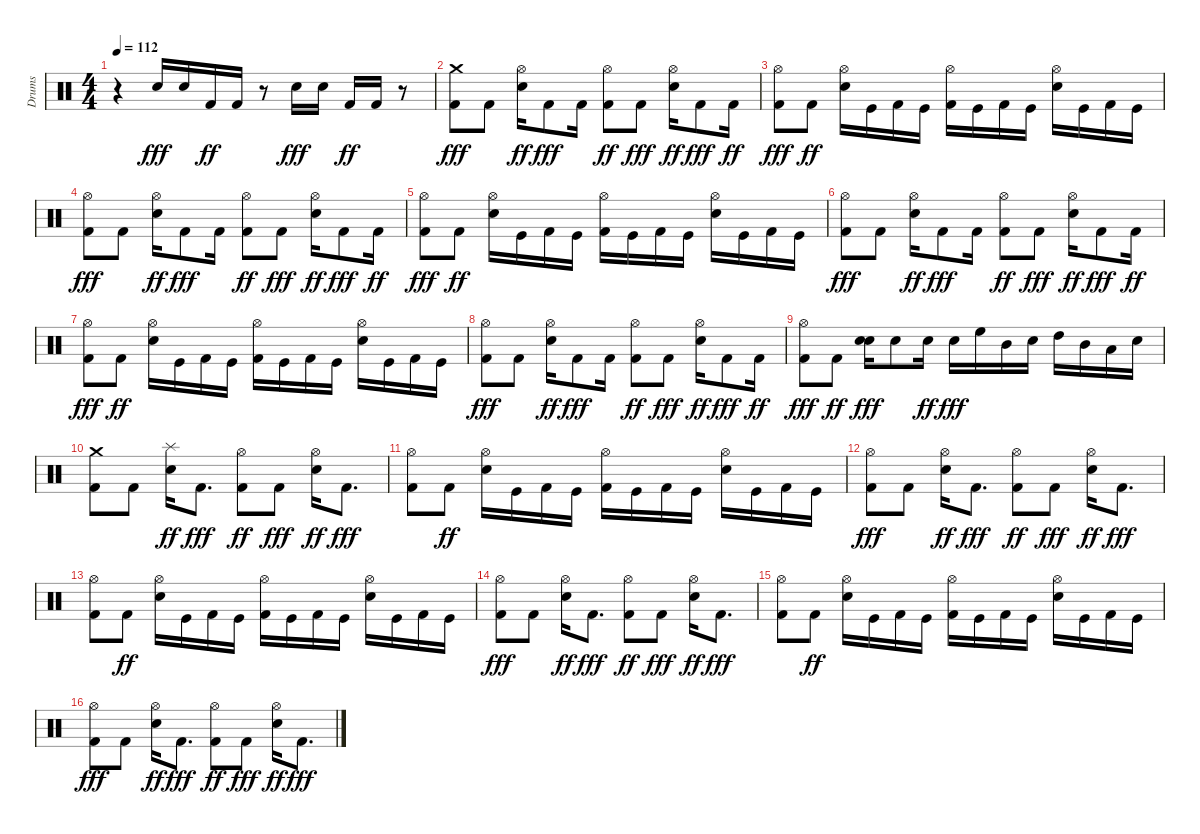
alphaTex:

\track ("Drums" "Drums") {instrument percussion}
\staff {score}
\articulation defaults
\ts (4 4)
\tempo 112
\clef neutral
\ks c
r.4{dy fff} "Electric Snare (hit)".16 "Snare (hit) 2".16 "Kick (hit) 2".16{dy ff} "Kick (hit) 2".16 r.8 "Electric Snare (hit)".16{dy fff} "Snare (hit) 2".16 "Kick (hit) 2".16{dy ff} "Kick (hit) 2".16 r.8 |
("Kick (hit) 2" "Crash medium (hit)").8{dy fff} "Kick (hit) 2".8 ("Snare (hit) 2" "Hi-Hat (open)").16{dy ff} "Kick (hit) 2".8{dy fff} "Kick (hit) 2".16 ("Kick (hit) 2" "Hi-Hat (open)").8{dy ff} "Kick (hit) 2".8{dy fff} ("Snare (hit) 2" "Hi-Hat (open)").16{dy ff} "Kick (hit) 2".8{dy fff} "Kick (hit) 2".16{dy ff} |
("Kick (hit) 2" "Hi-Hat (open)").8{dy fff} "Kick (hit) 2".8{dy ff} ("Snare (hit) 2" "Hi-Hat (open)").16 "Kick (hit)".16 "Kick (hit) 2".16 "Kick (hit)".16 ("Kick (hit) 2" "Hi-Hat (open)").16 "Kick (hit)".16 "Kick (hit) 2".16 "Kick (hit)".16 ("Snare (hit) 2" "Hi-Hat (open)").16 "Kick (hit)".16 "Kick (hit) 2".16 "Kick (hit)".16 |
("Kick (hit) 2" "Hi-Hat (open)").8{dy fff} "Kick (hit) 2".8 ("Snare (hit) 2" "Hi-Hat (open)").16{dy ff} "Kick (hit) 2".8{dy fff} "Kick (hit) 2".16 ("Kick (hit) 2" "Hi-Hat (open)").8{dy ff} "Kick (hit) 2".8{dy fff} ("Snare (hit) 2" "Hi-Hat (open)").16{dy ff} "Kick (hit) 2".8{dy fff} "Kick (hit) 2".16{dy ff} |
("Kick (hit) 2" "Hi-Hat (open)").8{dy fff} "Kick (hit) 2".8{dy ff} ("Snare (hit) 2" "Hi-Hat (open)").16 "Kick (hit)".16 "Kick (hit) 2".16 "Kick (hit)".16 ("Kick (hit) 2" "Hi-Hat (open)").16 "Kick (hit)".16 "Kick (hit) 2".16 "Kick (hit)".16 ("Snare (hit) 2" "Hi-Hat (open)").16 "Kick (hit)".16 "Kick (hit) 2".16 "Kick (hit)".16 |
("Kick (hit) 2" "Hi-Hat (open)").8{dy fff} "Kick (hit) 2".8 ("Snare (hit) 2" "Hi-Hat (open)").16{dy ff} "Kick (hit) 2".8{dy fff} "Kick (hit) 2".16 ("Kick (hit) 2" "Hi-Hat (open)").8{dy ff} "Kick (hit) 2".8{dy fff} ("Snare (hit) 2" "Hi-Hat (open)").16{dy ff} "Kick (hit) 2".8{dy fff} "Kick (hit) 2".16{dy ff} |
("Kick (hit) 2" "Hi-Hat (open)").8{dy fff} "Kick (hit) 2".8{dy ff} ("Snare (hit) 2" "Hi-Hat (open)").16 "Kick (hit)".16 "Kick (hit) 2".16 "Kick (hit)".16 ("Kick (hit) 2" "Hi-Hat (open)").16 "Kick (hit)".16 "Kick (hit) 2".16 "Kick (hit)".16 ("Snare (hit) 2" "Hi-Hat (open)").16 "Kick (hit)".16 "Kick (hit) 2".16 "Kick (hit)".16 |
("Kick (hit) 2" "Hi-Hat (open)").8{dy fff} "Kick (hit) 2".8 ("Snare (hit) 2" "Hi-Hat (open)").16{dy ff} "Kick (hit) 2".8{dy fff} "Kick (hit) 2".16 ("Kick (hit) 2" "Hi-Hat (open)").8{dy ff} "Kick (hit) 2".8{dy fff} ("Snare (hit) 2" "Hi-Hat (open)").16{dy ff} "Kick (hit) 2".8{dy fff} "Kick (hit) 2".16{dy ff} |
("Kick (hit) 2" "Hi-Hat (open)").8{dy fff} "Kick (hit) 2".8{dy ff} ("Electric Snare (hit)" "Electric Snare (hit)").16{dy fff} "Snare (hit) 2".8 "Electric Snare (hit)".16{dy ff} "Electric Snare (hit)".16{dy fff} "High Floor Tom (hit)".16 "Mid Tom (hit)".16 "Snare (hit) 2".16 "High Tom (hit)".16 "Mid Tom (hit)".16 "Low Tom (hit)".16 "Electric Snare (hit)".16 |
("Kick (hit) 2" "Crash medium (hit)").8 "Kick (hit) 2".8 ("Snare (hit) 2" "Splash (hit)").16{dy ff} "Kick (hit) 2".8{d dy fff} ("Kick (hit) 2" "Hi-Hat (open)").8{dy ff} "Kick (hit) 2".8{dy fff} ("Snare (hit) 2" "Hi-Hat (open)").16{dy ff} "Kick (hit) 2".8{d dy fff} |
("Kick (hit) 2" "Hi-Hat (open)").8 "Kick (hit) 2".8{dy ff} ("Snare (hit) 2" "Hi-Hat (open)").16 "Kick (hit)".16 "Kick (hit) 2".16 "Kick (hit)".16 ("Kick (hit) 2" "Hi-Hat (open)").16 "Kick (hit)".16 "Kick (hit) 2".16 "Kick (hit)".16 ("Snare (hit) 2" "Hi-Hat (open)").16 "Kick (hit)".16 "Kick (hit) 2".16 "Kick (hit)".16 |
("Kick (hit) 2" "Hi-Hat (open)").8{dy fff} "Kick (hit) 2".8 ("Snare (hit) 2" "Hi-Hat (open)").16{dy ff} "Kick (hit) 2".8{d dy fff} ("Kick (hit) 2" "Hi-Hat (open)").8{dy ff} "Kick (hit) 2".8{dy fff} ("Snare (hit) 2" "Hi-Hat (open)").16{dy ff} "Kick (hit) 2".8{d dy fff} |
("Kick (hit) 2" "Hi-Hat (open)").8 "Kick (hit) 2".8{dy ff} ("Snare (hit) 2" "Hi-Hat (open)").16 "Kick (hit)".16 "Kick (hit) 2".16 "Kick (hit)".16 ("Kick (hit) 2" "Hi-Hat (open)").16 "Kick (hit)".16 "Kick (hit) 2".16 "Kick (hit)".16 ("Snare (hit) 2" "Hi-Hat (open)").16 "Kick (hit)".16 "Kick (hit) 2".16 "Kick (hit)".16 |
("Kick (hit) 2" "Hi-Hat (open)").8{dy fff} "Kick (hit) 2".8 ("Snare (hit) 2" "Hi-Hat (open)").16{dy ff} "Kick (hit) 2".8{d dy fff} ("Kick (hit) 2" "Hi-Hat (open)").8{dy ff} "Kick (hit) 2".8{dy fff} ("Snare (hit) 2" "Hi-Hat (open)").16{dy ff} "Kick (hit) 2".8{d dy fff} |
("Kick (hit) 2" "Hi-Hat (open)").8 "Kick (hit) 2".8{dy ff} ("Snare (hit) 2" "Hi-Hat (open)").16 "Kick (hit)".16 "Kick (hit) 2".16 "Kick (hit)".16 ("Kick (hit) 2" "Hi-Hat (open)").16 "Kick (hit)".16 "Kick (hit) 2".16 "Kick (hit)".16 ("Snare (hit) 2" "Hi-Hat (open)").16 "Kick (hit)".16 "Kick (hit) 2".16 "Kick (hit)".16 |
("Kick (hit) 2" "Hi-Hat (open)").8{dy fff} "Kick (hit) 2".8 ("Snare (hit) 2" "Hi-Hat (open)").16{dy ff} "Kick (hit) 2".8{d dy fff} ("Kick (hit) 2" "Hi-Hat (open)").8{dy ff} "Kick (hit) 2".8{dy fff} ("Snare (hit) 2" "Hi-Hat (open)").16{dy ff} "Kick (hit) 2".8{d dy fff}
